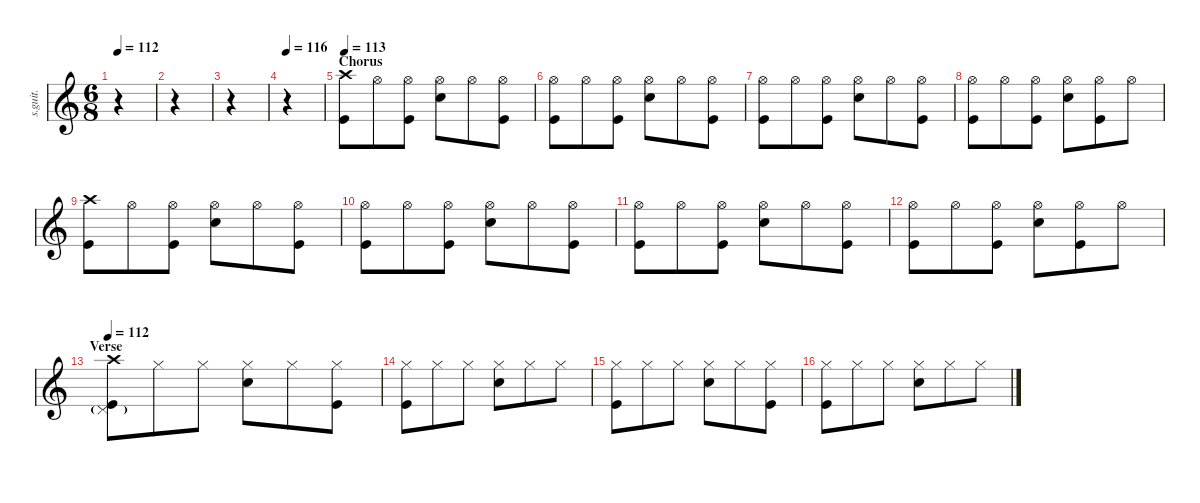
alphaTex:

\defaultSystemsLayout 4
\hideDynamics
\bracketExtendMode nobrackets
\track ("John Dolmayan - Drums" "s.guit.") {instrument percussion}
\staff {score}
\articulation defaults
\ts (6 8)
\tempo 112
\clef g2
\ks c
r.4{dy f} |
r.4 |
r.4 |
\tempo 116
r.4 |
\section ("" "Chorus")
\tempo 113
("Crash high (hit)" "Kick (hit)").8{lyrics (0 "") lyrics (1 "") lyrics (2 "") lyrics (3 "") lyrics (4 "")} "Hi-Hat (open)".8{lyrics (0 "") lyrics (1 "") lyrics (2 "") lyrics (3 "") lyrics (4 "")} ("Hi-Hat (open)" "Kick (hit)").8{lyrics (0 "") lyrics (1 "") lyrics (2 "") lyrics (3 "") lyrics (4 "")} ("Hi-Hat (open)" "Snare (hit) 2").8{lyrics (0 "") lyrics (1 "") lyrics (2 "") lyrics (3 "") lyrics (4 "")} "Hi-Hat (open)".8{lyrics (0 "") lyrics (1 "") lyrics (2 "") lyrics (3 "") lyrics (4 "")} ("Hi-Hat (open)" "Kick (hit)").8{lyrics (0 "") lyrics (1 "") lyrics (2 "") lyrics (3 "") lyrics (4 "")} |
("Hi-Hat (open)" "Kick (hit)").8{lyrics (0 "") lyrics (1 "") lyrics (2 "") lyrics (3 "") lyrics (4 "")} "Hi-Hat (open)".8{lyrics (0 "") lyrics (1 "") lyrics (2 "") lyrics (3 "") lyrics (4 "")} ("Hi-Hat (open)" "Kick (hit)").8{lyrics (0 "") lyrics (1 "") lyrics (2 "") lyrics (3 "") lyrics (4 "")} ("Hi-Hat (open)" "Snare (hit) 2").8{lyrics (0 "") lyrics (1 "") lyrics (2 "") lyrics (3 "") lyrics (4 "")} "Hi-Hat (open)".8{lyrics (0 "") lyrics (1 "") lyrics (2 "") lyrics (3 "") lyrics (4 "")} ("Hi-Hat (open)" "Kick (hit)").8{lyrics (0 "") lyrics (1 "") lyrics (2 "") lyrics (3 "") lyrics (4 "")} |
("Hi-Hat (open)" "Kick (hit)").8{lyrics (0 "") lyrics (1 "") lyrics (2 "") lyrics (3 "") lyrics (4 "")} "Hi-Hat (open)".8{lyrics (0 "") lyrics (1 "") lyrics (2 "") lyrics (3 "") lyrics (4 "")} ("Hi-Hat (open)" "Kick (hit)").8{lyrics (0 "") lyrics (1 "") lyrics (2 "") lyrics (3 "") lyrics (4 "")} ("Hi-Hat (open)" "Snare (hit) 2").8{lyrics (0 "") lyrics (1 "") lyrics (2 "") lyrics (3 "") lyrics (4 "")} "Hi-Hat (open)".8{lyrics (0 "") lyrics (1 "") lyrics (2 "") lyrics (3 "") lyrics (4 "")} ("Hi-Hat (open)" "Kick (hit)").8{lyrics (0 "") lyrics (1 "") lyrics (2 "") lyrics (3 "") lyrics (4 "")} |
("Hi-Hat (open)" "Kick (hit)").8{lyrics (0 "") lyrics (1 "") lyrics (2 "") lyrics (3 "") lyrics (4 "")} "Hi-Hat (open)".8{lyrics (0 "") lyrics (1 "") lyrics (2 "") lyrics (3 "") lyrics (4 "")} ("Hi-Hat (open)" "Kick (hit)").8{lyrics (0 "") lyrics (1 "") lyrics (2 "") lyrics (3 "") lyrics (4 "")} ("Hi-Hat (open)" "Snare (hit) 2").8{lyrics (0 "") lyrics (1 "") lyrics (2 "") lyrics (3 "") lyrics (4 "")} ("Hi-Hat (open)" "Kick (hit)").8{lyrics (0 "") lyrics (1 "") lyrics (2 "") lyrics (3 "") lyrics (4 "")} "Hi-Hat (open)".8{lyrics (0 "") lyrics (1 "") lyrics (2 "") lyrics (3 "") lyrics (4 "")} |
("Crash high (hit)" "Kick (hit)").8{lyrics (0 "") lyrics (1 "") lyrics (2 "") lyrics (3 "") lyrics (4 "")} "Hi-Hat (open)".8{lyrics (0 "") lyrics (1 "") lyrics (2 "") lyrics (3 "") lyrics (4 "")} ("Hi-Hat (open)" "Kick (hit)").8{lyrics (0 "") lyrics (1 "") lyrics (2 "") lyrics (3 "") lyrics (4 "")} ("Hi-Hat (open)" "Snare (hit) 2").8{lyrics (0 "") lyrics (1 "") lyrics (2 "") lyrics (3 "") lyrics (4 "")} "Hi-Hat (open)".8{lyrics (0 "") lyrics (1 "") lyrics (2 "") lyrics (3 "") lyrics (4 "")} ("Hi-Hat (open)" "Kick (hit)").8{lyrics (0 "") lyrics (1 "") lyrics (2 "") lyrics (3 "") lyrics (4 "")} |
("Hi-Hat (open)" "Kick (hit)").8{lyrics (0 "") lyrics (1 "") lyrics (2 "") lyrics (3 "") lyrics (4 "")} "Hi-Hat (open)".8{lyrics (0 "") lyrics (1 "") lyrics (2 "") lyrics (3 "") lyrics (4 "")} ("Hi-Hat (open)" "Kick (hit)").8{lyrics (0 "") lyrics (1 "") lyrics (2 "") lyrics (3 "") lyrics (4 "")} ("Hi-Hat (open)" "Snare (hit) 2").8{lyrics (0 "") lyrics (1 "") lyrics (2 "") lyrics (3 "") lyrics (4 "")} "Hi-Hat (open)".8{lyrics (0 "") lyrics (1 "") lyrics (2 "") lyrics (3 "") lyrics (4 "")} ("Hi-Hat (open)" "Kick (hit)").8{lyrics (0 "") lyrics (1 "") lyrics (2 "") lyrics (3 "") lyrics (4 "")} |
("Hi-Hat (open)" "Kick (hit)").8{lyrics (0 "") lyrics (1 "") lyrics (2 "") lyrics (3 "") lyrics (4 "")} "Hi-Hat (open)".8{lyrics (0 "") lyrics (1 "") lyrics (2 "") lyrics (3 "") lyrics (4 "")} ("Hi-Hat (open)" "Kick (hit)").8{lyrics (0 "") lyrics (1 "") lyrics (2 "") lyrics (3 "") lyrics (4 "")} ("Hi-Hat (open)" "Snare (hit) 2").8{lyrics (0 "") lyrics (1 "") lyrics (2 "") lyrics (3 "") lyrics (4 "")} "Hi-Hat (open)".8{lyrics (0 "") lyrics (1 "") lyrics (2 "") lyrics (3 "") lyrics (4 "")} ("Hi-Hat (open)" "Kick (hit)").8{lyrics (0 "") lyrics (1 "") lyrics (2 "") lyrics (3 "") lyrics (4 "")} |
("Hi-Hat (open)" "Kick (hit)").8{lyrics (0 "") lyrics (1 "") lyrics (2 "") lyrics (3 "") lyrics (4 "")} "Hi-Hat (open)".8{lyrics (0 "") lyrics (1 "") lyrics (2 "") lyrics (3 "") lyrics (4 "")} ("Hi-Hat (open)" "Kick (hit)").8{lyrics (0 "") lyrics (1 "") lyrics (2 "") lyrics (3 "") lyrics (4 "")} ("Hi-Hat (open)" "Snare (hit) 2").8{lyrics (0 "") lyrics (1 "") lyrics (2 "") lyrics (3 "") lyrics (4 "")} ("Hi-Hat (open)" "Kick (hit)").8{lyrics (0 "") lyrics (1 "") lyrics (2 "") lyrics (3 "") lyrics (4 "")} "Hi-Hat (open)".8{lyrics (0 "") lyrics (1 "") lyrics (2 "") lyrics (3 "") lyrics (4 "")} |
\section ("" "Verse")
\tempo 112
("Crash high (hit)" "Pedal Hi-Hat (hit)"{g} "Kick (hit)").8{lyrics (0 "") lyrics (1 "") lyrics (2 "") lyrics (3 "") lyrics (4 "")} "Hi-Hat (closed)".8{lyrics (0 "") lyrics (1 "") lyrics (2 "") lyrics (3 "") lyrics (4 "")} "Hi-Hat (closed)".8{lyrics (0 "") lyrics (1 "") lyrics (2 "") lyrics (3 "") lyrics (4 "")} ("Hi-Hat (closed)" "Snare (hit) 2").8{lyrics (0 "") lyrics (1 "") lyrics (2 "") lyrics (3 "") lyrics (4 "")} "Hi-Hat (closed)".8{lyrics (0 "") lyrics (1 "") lyrics (2 "") lyrics (3 "") lyrics (4 "")} ("Hi-Hat (closed)" "Kick (hit)").8{lyrics (0 "") lyrics (1 "") lyrics (2 "") lyrics (3 "") lyrics (4 "")} |
("Hi-Hat (closed)" "Kick (hit)").8{lyrics (0 "") lyrics (1 "") lyrics (2 "") lyrics (3 "") lyrics (4 "")} "Hi-Hat (closed)".8{lyrics (0 "") lyrics (1 "") lyrics (2 "") lyrics (3 "") lyrics (4 "")} "Hi-Hat (closed)".8{lyrics (0 "") lyrics (1 "") lyrics (2 "") lyrics (3 "") lyrics (4 "")} ("Hi-Hat (closed)" "Snare (hit) 2").8{lyrics (0 "") lyrics (1 "") lyrics (2 "") lyrics (3 "") lyrics (4 "")} "Hi-Hat (closed)".8{lyrics (0 "") lyrics (1 "") lyrics (2 "") lyrics (3 "") lyrics (4 "")} "Hi-Hat (closed)".8{lyrics (0 "") lyrics (1 "") lyrics (2 "") lyrics (3 "") lyrics (4 "")} |
("Hi-Hat (closed)" "Kick (hit)").8{lyrics (0 "") lyrics (1 "") lyrics (2 "") lyrics (3 "") lyrics (4 "")} "Hi-Hat (closed)".8{lyrics (0 "") lyrics (1 "") lyrics (2 "") lyrics (3 "") lyrics (4 "")} "Hi-Hat (closed)".8{lyrics (0 "") lyrics (1 "") lyrics (2 "") lyrics (3 "") lyrics (4 "")} ("Hi-Hat (closed)" "Snare (hit) 2").8{lyrics (0 "") lyrics (1 "") lyrics (2 "") lyrics (3 "") lyrics (4 "")} "Hi-Hat (closed)".8{lyrics (0 "") lyrics (1 "") lyrics (2 "") lyrics (3 "") lyrics (4 "")} ("Hi-Hat (closed)" "Kick (hit)").8{lyrics (0 "") lyrics (1 "") lyrics (2 "") lyrics (3 "") lyrics (4 "")} |
("Hi-Hat (closed)" "Kick (hit)").8{lyrics (0 "") lyrics (1 "") lyrics (2 "") lyrics (3 "") lyrics (4 "")} "Hi-Hat (closed)".8{lyrics (0 "") lyrics (1 "") lyrics (2 "") lyrics (3 "") lyrics (4 "")} "Hi-Hat (closed)".8{lyrics (0 "") lyrics (1 "") lyrics (2 "") lyrics (3 "") lyrics (4 "")} ("Hi-Hat (closed)" "Snare (hit) 2").8{lyrics (0 "") lyrics (1 "") lyrics (2 "") lyrics (3 "") lyrics (4 "")} "Hi-Hat (closed)".8{lyrics (0 "") lyrics (1 "") lyrics (2 "") lyrics (3 "") lyrics (4 "")} "Hi-Hat (closed)".8{lyrics (0 "") lyrics (1 "") lyrics (2 "") lyrics (3 "") lyrics (4 "")}
